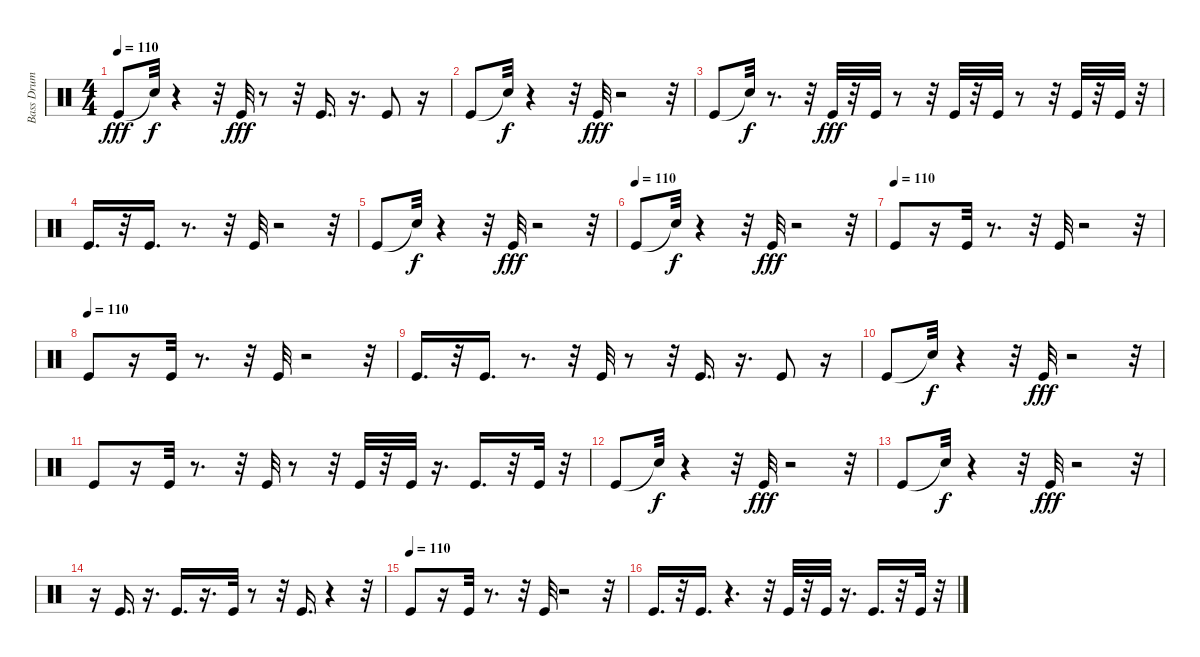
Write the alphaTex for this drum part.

\track ("Bass Drum" "Bass Drum") {instrument percussion}
\staff {score}
\articulation defaults
\ts (4 4)
\tempo 110
\clef neutral
\ks c "Kick (hit)".8{dy fff} "Snare (hit)"{t}.32{dy f}
r.4 r.32 "Kick (hit)".32{dy fff} r.8 r.32 "Kick (hit)".16{d} r.16{d} "Kick (hit)".8 r.16 |
"Kick (hit)".8 "Snare (hit)"{t}.32{dy f} r.4 r.32 "Kick (hit)".32{dy fff} r.2 r.32 |
"Kick (hit)".8 "Snare (hit)"{t}.32{dy f} r.8{d} r.32 "Kick (hit)".32{dy fff} r.32 "Kick (hit)".32 r.8 r.32 "Kick (hit)".32 r.32 "Kick (hit)".32 r.8 r.32 "Kick (hit)".32 r.32 "Kick (hit)".32 r.32 |
"Kick (hit)".16{d} r.32 "Kick (hit)".16{d} r.8{d} r.32 "Kick (hit)".32 r.2 r.32 |
"Kick (hit)".8 "Snare (hit)"{t}.32{dy f} r.4 r.32 "Kick (hit)".32{dy fff} r.2 r.32 |
\tempo (110)
"Kick (hit)".8 "Snare (hit)"{t}.32{dy f} r.4 r.32 "Kick (hit)".32{dy fff} r.2 r.32 |
\tempo (110)
"Kick (hit)".8 r.16 "Kick (hit)".32 r.8{d} r.32 "Kick (hit)".32 r.2 r.32 |
\tempo (110)
"Kick (hit)".8 r.16 "Kick (hit)".32 r.8{d} r.32 "Kick (hit)".32 r.2 r.32 |
"Kick (hit)".16{d} r.32 "Kick (hit)".16{d} r.8{d} r.32 "Kick (hit)".32 r.8 r.32 "Kick (hit)".16{d} r.16{d} "Kick (hit)".8 r.16 |
"Kick (hit)".8 "Snare (hit)"{t}.32{dy f} r.4 r.32 "Kick (hit)".32{dy fff} r.2 r.32 |
"Kick (hit)".8 r.16 "Kick (hit)".32 r.8{d} r.32 "Kick (hit)".32 r.8 r.32 "Kick (hit)".32 r.32 "Kick (hit)".32 r.16{d} "Kick (hit)".16{d} r.32 "Kick (hit)".32 r.32 |
"Kick (hit)".8 "Snare (hit)"{t}.32{dy f} r.4 r.32 "Kick (hit)".32{dy fff} r.2 r.32 |
"Kick (hit)".8 "Snare (hit)"{t}.32{dy f} r.4 r.32 "Kick (hit)".32{dy fff} r.2 r.32 |
r.16 "Kick (hit)".16{d} r.16{d} "Kick (hit)".16{d} r.16{d} "Kick (hit)".32 r.8 r.32 "Kick (hit)".16{d} r.4 r.32 |
\tempo (110)
"Kick (hit)".8 r.16 "Kick (hit)".32 r.8{d} r.32 "Kick (hit)".32 r.2 r.32 |
"Kick (hit)".16{d} r.32 "Kick (hit)".16{d} r.4{d} r.32 "Kick (hit)".32 r.32 "Kick (hit)".32 r.16{d} "Kick (hit)".16{d} r.32 "Kick (hit)".32 r.32
